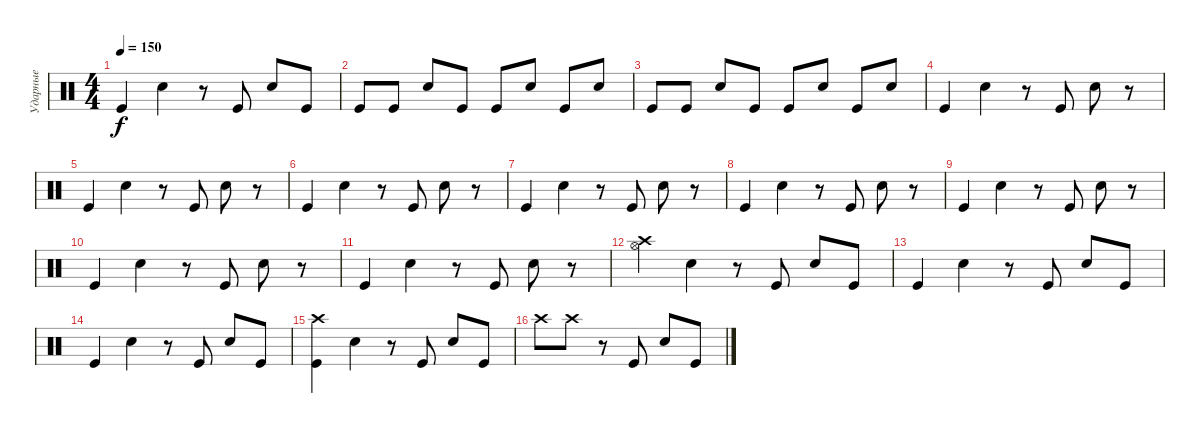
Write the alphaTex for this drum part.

\track ("Ударные" "Ударные") {instrument percussion}
\staff {score}
\articulation defaults
\ts (4 4)
\tempo 150
\clef neutral
\ks c "Kick (hit)".4{dy f} "Snare (hit) 2".4
r.8 "Kick (hit)".8 "Snare (hit) 2".8 "Kick (hit)".8 |
"Kick (hit)".8 "Kick (hit)".8 "Snare (hit) 2".8 "Kick (hit)".8 "Kick (hit)".8 "Snare (hit) 2".8 "Kick (hit)".8 "Snare (hit) 2".8 |
"Kick (hit)".8 "Kick (hit)".8 "Snare (hit) 2".8 "Kick (hit)".8 "Kick (hit)".8 "Snare (hit) 2".8 "Kick (hit)".8 "Snare (hit) 2".8 |
"Kick (hit)".4 "Snare (hit) 2".4 r.8 "Kick (hit)".8 "Snare (hit) 2".8 r.8 |
"Kick (hit)".4 "Snare (hit) 2".4 r.8 "Kick (hit)".8 "Snare (hit) 2".8 r.8 |
"Kick (hit)".4 "Snare (hit) 2".4 r.8 "Kick (hit)".8 "Snare (hit) 2".8 r.8 |
"Kick (hit)".4 "Snare (hit) 2".4 r.8 "Kick (hit)".8 "Snare (hit) 2".8 r.8 |
"Kick (hit)".4 "Snare (hit) 2".4 r.8 "Kick (hit)".8 "Snare (hit) 2".8 r.8 |
"Kick (hit)".4 "Snare (hit) 2".4 r.8 "Kick (hit)".8 "Snare (hit) 2".8 r.8 |
"Kick (hit)".4 "Snare (hit) 2".4 r.8 "Kick (hit)".8 "Snare (hit) 2".8 r.8 |
"Kick (hit)".4 "Snare (hit) 2".4 r.8 "Kick (hit)".8 "Snare (hit) 2".8 r.8 |
("Hi-Hat (open)" "Crash high (hit)").4 "Snare (hit) 2".4 r.8 "Kick (hit)".8 "Snare (hit) 2".8 "Kick (hit)".8 |
"Kick (hit)".4 "Snare (hit) 2".4 r.8 "Kick (hit)".8 "Snare (hit) 2".8 "Kick (hit)".8 |
"Kick (hit)".4 "Snare (hit) 2".4 r.8 "Kick (hit)".8 "Snare (hit) 2".8 "Kick (hit)".8 |
("Kick (hit)" "Crash high (hit)").4 "Snare (hit) 2".4 r.8 "Kick (hit)".8 "Snare (hit) 2".8 "Kick (hit)".8 |
"Crash high (hit)".8 "Crash high (hit)".8 r.8 "Kick (hit)".8 "Snare (hit) 2".8 "Kick (hit)".8
